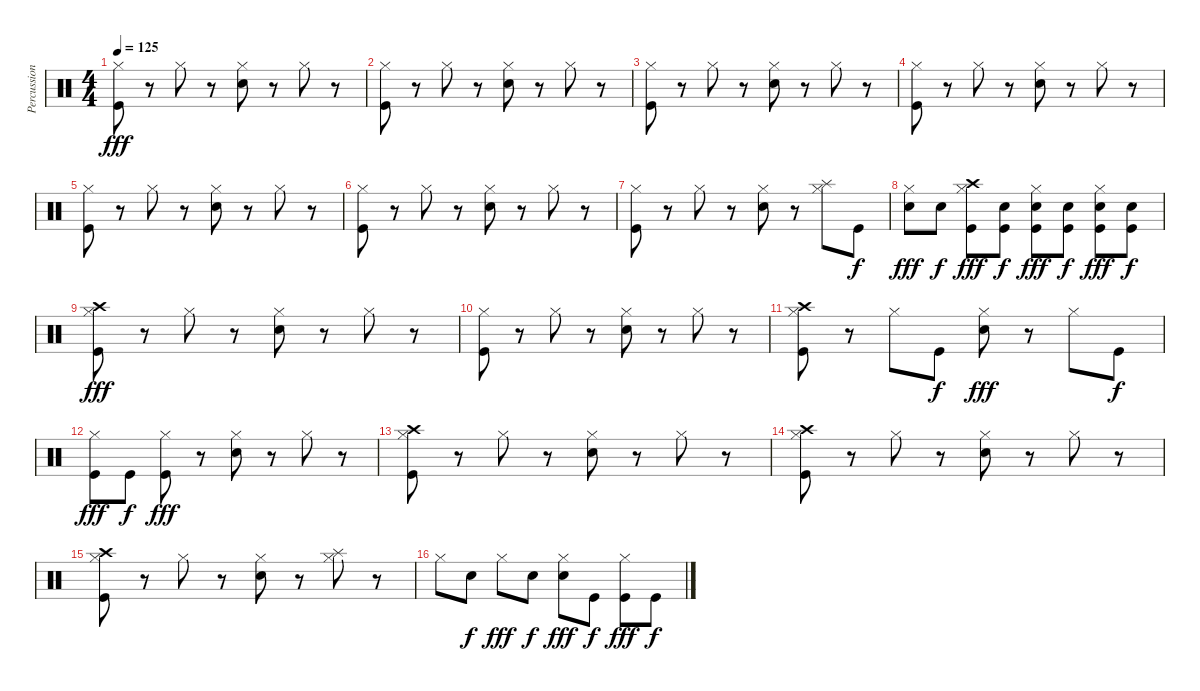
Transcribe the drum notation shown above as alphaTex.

\track ("Percussion" "Percussion") {instrument percussion}
\staff {score}
\articulation defaults
\ts (4 4)
\tempo 125
\clef neutral
\ks c
("Hi-Hat (closed)" "Kick (hit)").8{dy fff} r.8 "Hi-Hat (closed)".8 r.8 ("Hi-Hat (closed)" "Snare (hit) 2").8 r.8 "Hi-Hat (closed)".8 r.8 |
("Hi-Hat (closed)" "Kick (hit)").8 r.8 "Hi-Hat (closed)".8 r.8 ("Hi-Hat (closed)" "Snare (hit) 2").8 r.8 "Hi-Hat (closed)".8 r.8 |
("Hi-Hat (closed)" "Kick (hit)").8 r.8 "Hi-Hat (closed)".8 r.8 ("Hi-Hat (closed)" "Snare (hit) 2").8 r.8 "Hi-Hat (closed)".8 r.8 |
("Hi-Hat (closed)" "Kick (hit)").8 r.8 "Hi-Hat (closed)".8 r.8 ("Hi-Hat (closed)" "Snare (hit) 2").8 r.8 "Hi-Hat (closed)".8 r.8 |
("Hi-Hat (closed)" "Kick (hit)").8 r.8 "Hi-Hat (closed)".8 r.8 ("Hi-Hat (closed)" "Snare (hit) 2").8 r.8 "Hi-Hat (closed)".8 r.8 |
("Hi-Hat (closed)" "Kick (hit)").8 r.8 "Hi-Hat (closed)".8 r.8 ("Hi-Hat (closed)" "Snare (hit) 2").8 r.8 "Hi-Hat (closed)".8 r.8 |
("Hi-Hat (closed)" "Kick (hit)").8 r.8 "Hi-Hat (closed)".8 r.8 ("Hi-Hat (closed)" "Snare (hit) 2").8 r.8 ("Hi-Hat (closed)" "Splash (hit)").8 "Kick (hit)".8{dy f} |
("Hi-Hat (closed)" "Snare (hit) 2").8{dy fff} "Snare (hit) 2".8{dy f} ("Hi-Hat (closed)" "Crash high (hit)" "Kick (hit)").8{dy fff} ("Snare (hit) 2" "Kick (hit)").8{dy f} ("Hi-Hat (closed)" "Snare (hit) 2" "Kick (hit)").8{dy fff} ("Snare (hit) 2" "Kick (hit)").8{dy f} ("Hi-Hat (closed)" "Snare (hit) 2" "Kick (hit)").8{dy fff} ("Snare (hit) 2" "Kick (hit)").8{dy f} |
("Hi-Hat (closed)" "Crash high (hit)" "Kick (hit)").8{dy fff} r.8 "Hi-Hat (closed)".8 r.8 ("Hi-Hat (closed)" "Snare (hit) 2").8 r.8 "Hi-Hat (closed)".8 r.8 |
("Hi-Hat (closed)" "Kick (hit)").8 r.8 "Hi-Hat (closed)".8 r.8 ("Hi-Hat (closed)" "Snare (hit) 2").8 r.8 "Hi-Hat (closed)".8 r.8 |
("Hi-Hat (closed)" "Crash high (hit)" "Kick (hit)").8 r.8 "Hi-Hat (closed)".8 "Kick (hit)".8{dy f} ("Hi-Hat (closed)" "Snare (hit) 2").8{dy fff} r.8 "Hi-Hat (closed)".8 "Kick (hit)".8{dy f} |
("Hi-Hat (closed)" "Kick (hit)").8{dy fff} "Kick (hit)".8{dy f} ("Hi-Hat (closed)" "Kick (hit)").8{dy fff} r.8 ("Hi-Hat (closed)" "Snare (hit) 2").8 r.8 "Hi-Hat (closed)".8 r.8 |
("Hi-Hat (closed)" "Crash high (hit)" "Kick (hit)").8 r.8 "Hi-Hat (closed)".8 r.8 ("Hi-Hat (closed)" "Snare (hit) 2").8 r.8 "Hi-Hat (closed)".8 r.8 |
("Hi-Hat (closed)" "Crash high (hit)" "Kick (hit)").8 r.8 "Hi-Hat (closed)".8 r.8 ("Hi-Hat (closed)" "Snare (hit) 2").8 r.8 "Hi-Hat (closed)".8 r.8 |
("Hi-Hat (closed)" "Crash high (hit)" "Kick (hit)").8 r.8 "Hi-Hat (closed)".8 r.8 ("Hi-Hat (closed)" "Snare (hit) 2").8 r.8 ("Hi-Hat (closed)" "Splash (hit)").8 r.8 |
"Hi-Hat (closed)".8 "Snare (hit) 2".8{dy f} "Hi-Hat (closed)".8{dy fff} "Snare (hit) 2".8{dy f} ("Hi-Hat (closed)" "Snare (hit) 2").8{dy fff} "Kick (hit)".8{dy f} ("Hi-Hat (closed)" "Kick (hit)").8{dy fff} "Kick (hit)".8{dy f}
